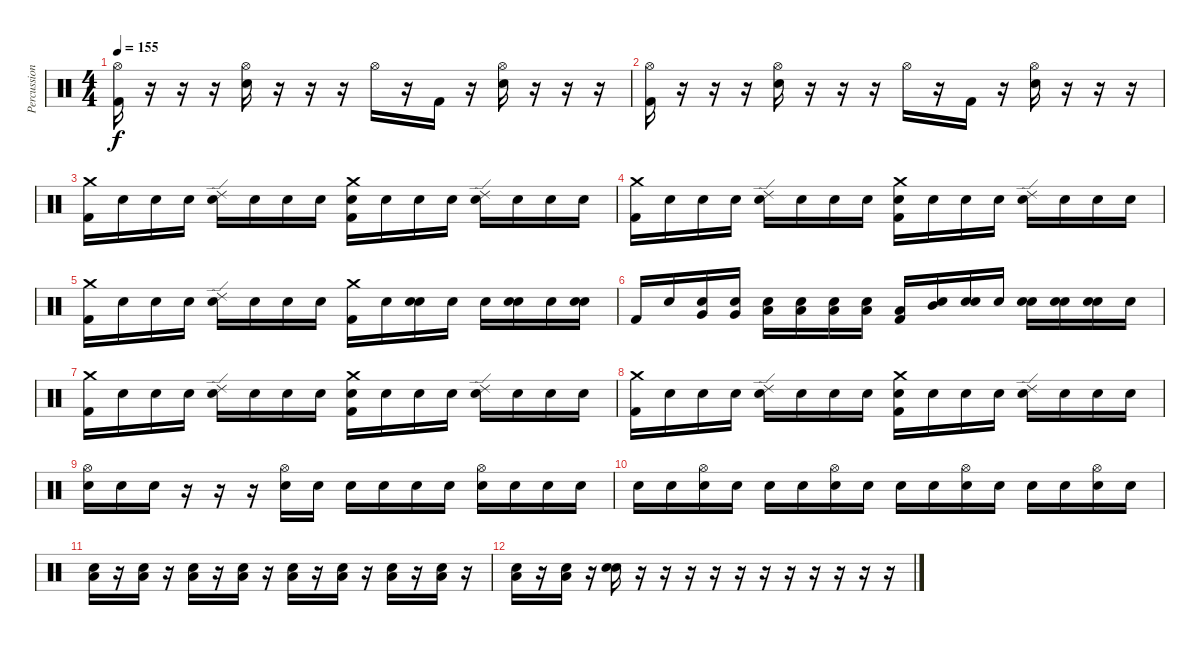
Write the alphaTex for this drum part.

\track ("Percussion" "Percussion") {instrument percussion}
\staff {score}
\articulation defaults
\ts (4 4)
\tempo 155
\clef neutral
\ks c
("Hi-Hat (open)" "Kick (hit) 2").16{dy f} r.16 r.16 r.16 ("Electric Snare (hit)" "Hi-Hat (open)").16 r.16 r.16 r.16 "Hi-Hat (open)".16 r.16 "Kick (hit) 2".16 r.16 ("Electric Snare (hit)" "Hi-Hat (open)").16 r.16 r.16 r.16 |
("Hi-Hat (open)" "Kick (hit) 2").16 r.16 r.16 r.16 ("Electric Snare (hit)" "Hi-Hat (open)").16 r.16 r.16 r.16 "Hi-Hat (open)".16 r.16 "Kick (hit) 2".16 r.16 ("Electric Snare (hit)" "Hi-Hat (open)").16 r.16 r.16 r.16 |
("Crash medium (hit)" "Kick (hit) 2").16 "Snare (hit)".16 "Snare (hit)".16 "Snare (hit)".16 ("Ride (edge) 2" "Snare (hit)").16 "Snare (hit)".16 "Snare (hit)".16 "Snare (hit)".16 ("Crash medium (hit)" "Electric Snare (hit)" "Kick (hit) 2").16 "Snare (hit)".16 "Snare (hit)".16 "Snare (hit)".16 ("Ride (edge) 2" "Snare (hit)").16 "Snare (hit)".16 "Snare (hit)".16 "Snare (hit)".16 |
("Crash medium (hit)" "Kick (hit) 2").16 "Snare (hit)".16 "Snare (hit)".16 "Snare (hit)".16 ("Ride (edge) 2" "Snare (hit)").16 "Snare (hit)".16 "Snare (hit)".16 "Snare (hit)".16 ("Crash medium (hit)" "Electric Snare (hit)" "Kick (hit) 2").16 "Snare (hit)".16 "Snare (hit)".16 "Snare (hit)".16 ("Ride (edge) 2" "Snare (hit)").16 "Snare (hit)".16 "Snare (hit)".16 "Snare (hit)".16 |
("Crash medium (hit)" "Kick (hit) 2").16 "Snare (hit)".16 "Snare (hit)".16 "Snare (hit)".16 ("Ride (edge) 2" "Snare (hit)").16 "Snare (hit)".16 "Snare (hit)".16 "Snare (hit)".16 ("Crash medium (hit)" "Kick (hit) 2").16 "Snare (hit)".16 ("Electric Snare (hit)" "Snare (hit)").16 "Snare (hit)".16 "Snare (hit)".16 ("Electric Snare (hit)" "Snare (hit)").16 "Snare (hit)".16 ("Electric Snare (hit)" "Snare (hit)").16 |
"Kick (hit) 2".16 "Snare (hit)".16 ("Very Low Tom (hit)" "Snare (hit)").16 ("Very Low Tom (hit)" "Snare (hit)").16 ("Low Tom (hit)" "Snare (hit)").16 ("Low Tom (hit)" "Snare (hit)").16 ("Low Floor Tom (hit)" "Snare (hit)").16 ("Low Floor Tom (hit)" "Snare (hit)").16 ("Low Floor Tom (hit)" "Kick (hit) 2").16 ("Mid Tom (hit)" "Snare (hit)").16 ("Electric Snare (hit)" "Snare (hit)").16 "Snare (hit)".16 ("Electric Snare (hit)" "Snare (hit)").16 ("Electric Snare (hit)" "Snare (hit)").16 ("Electric Snare (hit)" "Snare (hit)").16 "Snare (hit)".16 |
("Crash medium (hit)" "Kick (hit) 2").16 "Snare (hit)".16 "Snare (hit)".16 "Snare (hit)".16 ("Ride (edge) 2" "Snare (hit)").16 "Snare (hit)".16 "Snare (hit)".16 "Snare (hit)".16 ("Crash medium (hit)" "Electric Snare (hit)" "Kick (hit) 2").16 "Snare (hit)".16 "Snare (hit)".16 "Snare (hit)".16 ("Ride (edge) 2" "Snare (hit)").16 "Snare (hit)".16 "Snare (hit)".16 "Snare (hit)".16 |
("Crash medium (hit)" "Kick (hit) 2").16 "Snare (hit)".16 "Snare (hit)".16 "Snare (hit)".16 ("Ride (edge) 2" "Snare (hit)").16 "Snare (hit)".16 "Snare (hit)".16 "Snare (hit)".16 ("Crash medium (hit)" "Electric Snare (hit)" "Kick (hit) 2").16 "Snare (hit)".16 "Snare (hit)".16 "Snare (hit)".16 ("Ride (edge) 2" "Snare (hit)").16 "Snare (hit)".16 "Snare (hit)".16 "Snare (hit)".16 |
("Hi-Hat (open)" "Electric Snare (hit)").16 "Snare (hit)".16 "Snare (hit)".16 r.16 r.16 r.16 ("Hi-Hat (open)" "Electric Snare (hit)").16 "Snare (hit)".16 "Snare (hit)".16 "Snare (hit)".16 "Snare (hit)".16 "Snare (hit)".16 ("Hi-Hat (open)" "Electric Snare (hit)").16 "Snare (hit)".16 "Snare (hit)".16 "Snare (hit)".16 |
"Snare (hit)".16 "Snare (hit)".16 ("Hi-Hat (open)" "Electric Snare (hit)").16 "Snare (hit)".16 "Snare (hit)".16 "Snare (hit)".16 ("Hi-Hat (open)" "Electric Snare (hit)").16 "Snare (hit)".16 "Snare (hit)".16 "Snare (hit)".16 ("Hi-Hat (open)" "Electric Snare (hit)").16 "Snare (hit)".16 "Snare (hit)".16 "Snare (hit)".16 ("Hi-Hat (open)" "Electric Snare (hit)").16 "Snare (hit)".16 |
("Electric Snare (hit)" "Low Floor Tom (hit)").16 r.16 ("Electric Snare (hit)" "Low Floor Tom (hit)").16 r.16 ("Electric Snare (hit)" "Low Floor Tom (hit)").16 r.16 ("Electric Snare (hit)" "Low Floor Tom (hit)").16 r.16 ("Electric Snare (hit)" "Low Floor Tom (hit)").16 r.16 ("Electric Snare (hit)" "Low Floor Tom (hit)").16 r.16 ("Low Floor Tom (hit)" "Electric Snare (hit)").16 r.16 ("Low Floor Tom (hit)" "Electric Snare (hit)").16 r.16 |
("Low Floor Tom (hit)" "Electric Snare (hit)").16 r.16 ("Low Floor Tom (hit)" "Electric Snare (hit)").16 r.16 ("Electric Snare (hit)" "Snare (hit) 2").16 r.16 r.16 r.16 r.16 r.16 r.16 r.16 r.16 r.16 r.16 r.16
